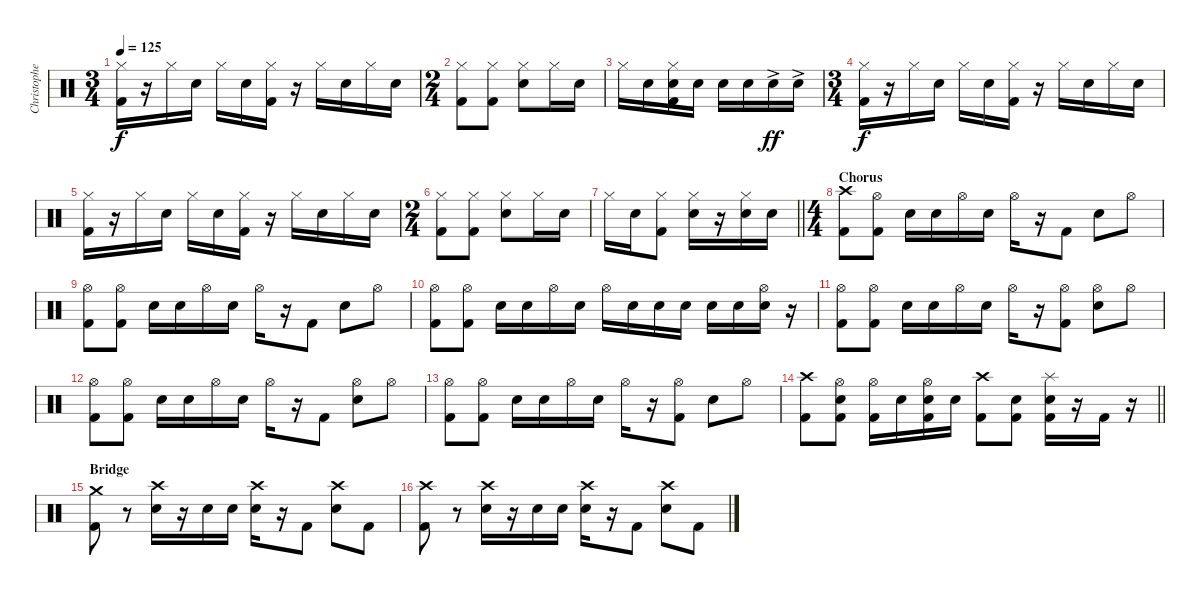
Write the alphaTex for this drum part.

\track ("Christopher - Drums" "Christophe") {instrument percussion}
\staff {score}
\articulation defaults
\ts (3 4)
\tempo 125
\clef neutral
\ks c
("Hi-Hat (closed)" "Kick (hit) 2").16{dy f} r.16 "Hi-Hat (closed)".16 "Electric Snare (hit)".16 "Hi-Hat (closed)".16 "Electric Snare (hit)".16 ("Hi-Hat (closed)" "Kick (hit) 2").16 r.16 "Hi-Hat (closed)".16 "Electric Snare (hit)".16 "Hi-Hat (closed)".16 "Electric Snare (hit)".16 |
\ts (2 4)
("Hi-Hat (closed)" "Kick (hit) 2").8 ("Hi-Hat (closed)" "Kick (hit) 2").8 ("Hi-Hat (closed)" "Electric Snare (hit)").8 "Hi-Hat (closed)".16 "Electric Snare (hit)".16 |
"Hi-Hat (closed)".16 "Electric Snare (hit)".16 ("Hi-Hat (closed)" "Electric Snare (hit)" "Kick (hit) 2").16 "Electric Snare (hit)".16 "Electric Snare (hit)".16 "Electric Snare (hit)".16 "Electric Snare (hit)"{ac}.16{dy ff} "Electric Snare (hit)"{ac}.16 |
\ts (3 4)
("Hi-Hat (closed)" "Kick (hit) 2").16{dy f} r.16 "Hi-Hat (closed)".16 "Electric Snare (hit)".16 "Hi-Hat (closed)".16 "Electric Snare (hit)".16 ("Hi-Hat (closed)" "Kick (hit) 2").16 r.16 "Hi-Hat (closed)".16 "Electric Snare (hit)".16 "Hi-Hat (closed)".16 "Electric Snare (hit)".16 |
("Hi-Hat (closed)" "Kick (hit) 2").16 r.16 "Hi-Hat (closed)".16 "Electric Snare (hit)".16 "Hi-Hat (closed)".16 "Electric Snare (hit)".16 ("Hi-Hat (closed)" "Kick (hit) 2").16 r.16 "Hi-Hat (closed)".16 "Electric Snare (hit)".16 "Hi-Hat (closed)".16 "Electric Snare (hit)".16 |
\ts (2 4)
("Hi-Hat (closed)" "Kick (hit) 2").8 ("Hi-Hat (closed)" "Kick (hit) 2").8 ("Hi-Hat (closed)" "Electric Snare (hit)").8 "Hi-Hat (closed)".16 "Electric Snare (hit)".16 |
\barLineRight lightlight "Hi-Hat (closed)".16 "Electric Snare (hit)".16
("Hi-Hat (closed)" "Kick (hit) 2").8 ("Hi-Hat (closed)" "Electric Snare (hit)").16 r.16 ("Hi-Hat (closed)" "Electric Snare (hit)").16 "Electric Snare (hit)".16 |
\ts (4 4)
\section ("" "Chorus")
("Crash high (hit)" "Kick (hit) 2").8 ("Hi-Hat (open)" "Kick (hit) 2").8 "Electric Snare (hit)".16 "Electric Snare (hit)".16 "Hi-Hat (open)".16 "Electric Snare (hit)".16 "Hi-Hat (open)".16 r.16 "Kick (hit) 2".8 "Electric Snare (hit)".8 "Hi-Hat (open)".8 |
("Hi-Hat (open)" "Kick (hit) 2").8 ("Hi-Hat (open)" "Kick (hit) 2").8 "Electric Snare (hit)".16 "Electric Snare (hit)".16 "Hi-Hat (open)".16 "Electric Snare (hit)".16 "Hi-Hat (open)".16 r.16 "Kick (hit) 2".8 "Electric Snare (hit)".8 "Hi-Hat (open)".8 |
("Hi-Hat (open)" "Kick (hit) 2").8 ("Hi-Hat (open)" "Kick (hit) 2").8 "Electric Snare (hit)".16 "Electric Snare (hit)".16 "Hi-Hat (open)".16 "Electric Snare (hit)".16 "Hi-Hat (open)".16 "Electric Snare (hit)".16 "Electric Snare (hit)".16 "Electric Snare (hit)".16 "Electric Snare (hit)".16 "Electric Snare (hit)".16 ("Hi-Hat (open)" "Electric Snare (hit)").16 r.16 |
("Hi-Hat (open)" "Kick (hit) 2").8 ("Hi-Hat (open)" "Kick (hit) 2").8 "Electric Snare (hit)".16 "Electric Snare (hit)".16 "Hi-Hat (open)".16 "Electric Snare (hit)".16 "Hi-Hat (open)".16 r.16 ("Hi-Hat (open)" "Kick (hit) 2").8 ("Hi-Hat (open)" "Electric Snare (hit)").8 "Hi-Hat (open)".8 |
("Hi-Hat (open)" "Kick (hit) 2").8 ("Hi-Hat (open)" "Kick (hit) 2").8 "Electric Snare (hit)".16 "Electric Snare (hit)".16 "Hi-Hat (open)".16 "Electric Snare (hit)".16 "Hi-Hat (open)".16 r.16 "Kick (hit) 2".8 ("Hi-Hat (open)" "Electric Snare (hit)").8 "Hi-Hat (open)".8 |
("Hi-Hat (open)" "Kick (hit) 2").8 ("Hi-Hat (open)" "Kick (hit) 2").8 "Electric Snare (hit)".16 "Electric Snare (hit)".16 "Hi-Hat (open)".16 "Electric Snare (hit)".16 "Hi-Hat (open)".16 r.16 ("Hi-Hat (open)" "Kick (hit) 2").8 "Electric Snare (hit)".8 "Hi-Hat (open)".8 |
\barLineRight lightlight
("Crash high (hit)" "Kick (hit) 2").8 ("Hi-Hat (open)" "Electric Snare (hit)" "Kick (hit) 2").8 ("Hi-Hat (open)" "Kick (hit) 2").16 "Electric Snare (hit)".16 ("Hi-Hat (open)" "Electric Snare (hit)" "Kick (hit) 2").16 "Electric Snare (hit)".16 ("Crash high (hit)" "Kick (hit) 2").8 ("Electric Snare (hit)" "Kick (hit) 2").8 ("Splash (hit)" "Electric Snare (hit)" "Kick (hit) 2").16 r.16 "Kick (hit) 2".16 r.16 |
\section ("" "Bridge")
("Crash medium (hit)" "Kick (hit) 2").8 r.8 ("Crash high (hit)" "Electric Snare (hit)").16 r.16 "Electric Snare (hit)".16 "Electric Snare (hit)".16 ("Crash high (hit)" "Electric Snare (hit)").16 r.16 "Kick (hit) 2".8 ("Crash high (hit)" "Electric Snare (hit)").8 "Kick (hit) 2".8 |
("Crash high (hit)" "Kick (hit) 2").8 r.8 ("Crash high (hit)" "Electric Snare (hit)").16 r.16 "Electric Snare (hit)".16 "Electric Snare (hit)".16 ("Crash high (hit)" "Electric Snare (hit)").16 r.16 "Kick (hit) 2".8 ("Crash high (hit)" "Electric Snare (hit)").8 "Kick (hit) 2".8
